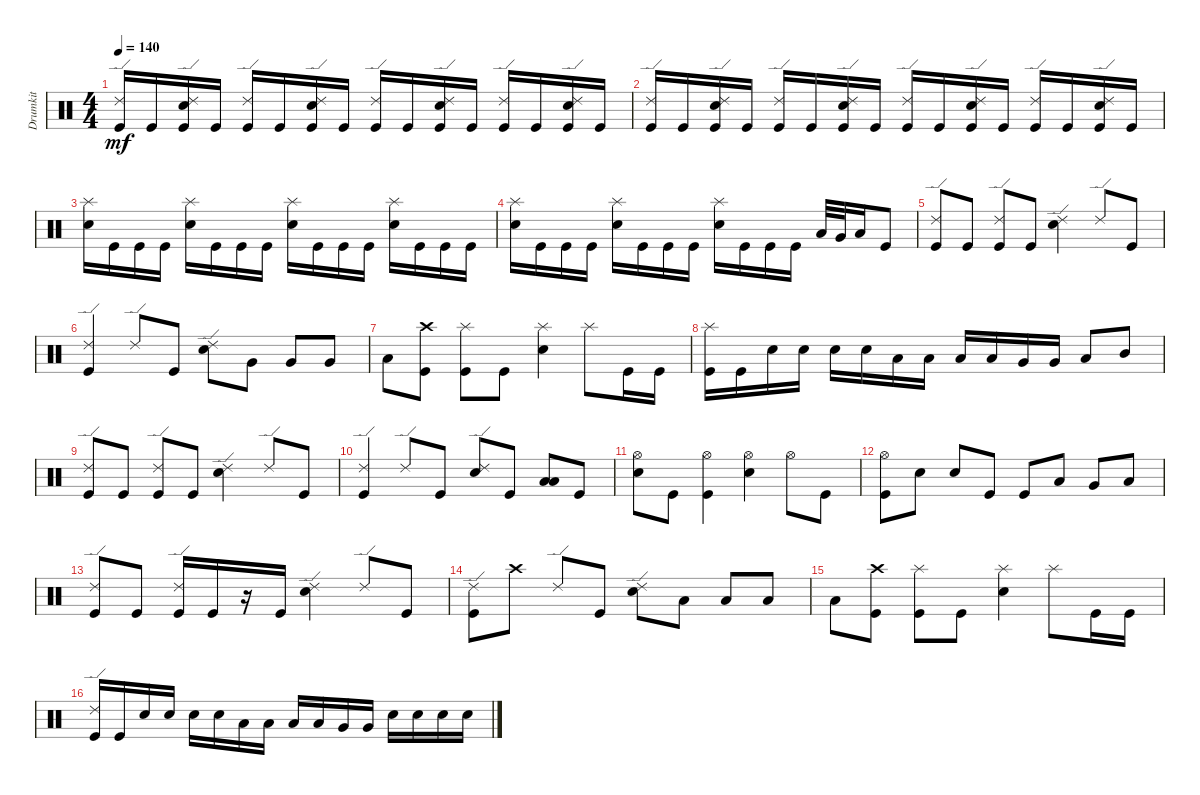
\track ("Drumkit" "Drumkit") {instrument percussion}
\staff {score}
\articulation defaults
\ts (4 4)
\tempo 140
\clef neutral
\ks c
("Kick (hit)" "Ride (edge) 2").16{dy mf} "Kick (hit)".16 ("Ride (edge) 2" "Snare (hit) 2" "Kick (hit)").16 "Kick (hit)".16 ("Kick (hit)" "Ride (edge) 2").16 "Kick (hit)".16 ("Ride (edge) 2" "Snare (hit) 2" "Kick (hit)").16 "Kick (hit)".16 ("Kick (hit)" "Ride (edge) 2").16 "Kick (hit)".16 ("Ride (edge) 2" "Snare (hit) 2" "Kick (hit)").16 "Kick (hit)".16 ("Kick (hit)" "Ride (edge) 2").16 "Kick (hit)".16 ("Ride (edge) 2" "Snare (hit) 2" "Kick (hit)").16 "Kick (hit)".16 |
("Kick (hit)" "Ride (edge) 2").16 "Kick (hit)".16 ("Ride (edge) 2" "Snare (hit) 2" "Kick (hit)").16 "Kick (hit)".16 ("Kick (hit)" "Ride (edge) 2").16 "Kick (hit)".16 ("Ride (edge) 2" "Snare (hit) 2" "Kick (hit)").16 "Kick (hit)".16 ("Kick (hit)" "Ride (edge) 2").16 "Kick (hit)".16 ("Ride (edge) 2" "Snare (hit) 2" "Kick (hit)").16 "Kick (hit)".16 ("Kick (hit)" "Ride (edge) 2").16 "Kick (hit)".16 ("Ride (edge) 2" "Snare (hit) 2" "Kick (hit)").16 "Kick (hit)".16 |
("Snare (hit) 2" "Splash (hit)").16 "Kick (hit)".16 "Kick (hit)".16 "Kick (hit)".16 ("Snare (hit) 2" "Splash (hit)").16 "Kick (hit)".16 "Kick (hit)".16 "Kick (hit)".16 ("Snare (hit) 2" "Splash (hit)").16 "Kick (hit)".16 "Kick (hit)".16 "Kick (hit)".16 ("Snare (hit) 2" "Splash (hit)").16 "Kick (hit)".16 "Kick (hit)".16 "Kick (hit)".16 |
("Snare (hit) 2" "Splash (hit)").16 "Kick (hit)".16 "Kick (hit)".16 "Kick (hit)".16 ("Snare (hit) 2" "Splash (hit)").16 "Kick (hit)".16 "Kick (hit)".16 "Kick (hit)".16 ("Snare (hit) 2" "Splash (hit)").16 "Kick (hit)".16 "Kick (hit)".16 "Kick (hit)".16 "Low Tom (hit)".32 "Very Low Tom (hit)".32 "Low Floor Tom (hit)".16 "Kick (hit)".8 |
("Kick (hit)" "Ride (edge) 2").8 "Kick (hit)".8 ("Kick (hit)" "Ride (edge) 2").8 "Kick (hit)".8 ("Snare (hit) 2" "Ride (edge) 2").4 "Ride (edge) 2".8 "Kick (hit)".8 |
("Kick (hit)" "Ride (edge) 2").4 "Ride (edge) 2".8 "Kick (hit)".8 ("Snare (hit) 2" "Ride (edge) 2").8 "Very Low Tom (hit)".8 "Very Low Tom (hit)".8 "Very Low Tom (hit)".8 |
"Low Floor Tom (hit)".8 ("Kick (hit)" "Crash high (hit)").8 ("Kick (hit)" "Splash (hit)").8 "Kick (hit)".8 ("Snare (hit) 2" "Splash (hit)").4 "Splash (hit)".8 "Kick (hit)".16 "Kick (hit)".16 |
("Kick (hit)" "Splash (hit)").16 "Kick (hit)".16 "Snare (hit) 2".16 "Snare (hit) 2".16 "Snare (hit) 2".16 "Snare (hit) 2".16 "Low Tom (hit)".16 "Low Tom (hit)".16 "Low Tom (hit)".16 "Low Tom (hit)".16 "Very Low Tom (hit)".16 "Very Low Tom (hit)".16 "Low Floor Tom (hit)".8 "Mid Tom (hit)".8 |
("Kick (hit)" "Ride (edge) 2").8 "Kick (hit)".8 ("Kick (hit)" "Ride (edge) 2").8 "Kick (hit)".8 ("Snare (hit) 2" "Ride (edge) 2").4 "Ride (edge) 2".8 "Kick (hit)".8 |
("Kick (hit)" "Ride (edge) 2").4 "Ride (edge) 2".8 "Kick (hit)".8 ("Snare (hit) 2" "Ride (edge) 2").8 "Kick (hit)".8 ("Low Tom (hit)" "Low Floor Tom (hit)").8 "Kick (hit)".8 |
("Snare (hit) 2" "Hi-Hat (open)").8 "Kick (hit)".8 ("Kick (hit)" "Hi-Hat (open)").4 ("Snare (hit) 2" "Hi-Hat (open)").4 "Hi-Hat (open)".8 "Kick (hit)".8 |
("Kick (hit)" "Hi-Hat (open)").8 "Snare (hit) 2".8 "Snare (hit) 2".8 "Kick (hit)".8 "Kick (hit)".8 "Low Tom (hit)".8 "Very Low Tom (hit)".8 "Low Floor Tom (hit)".8 |
("Kick (hit)" "Ride (edge) 2").8 "Kick (hit)".8 ("Kick (hit)" "Ride (edge) 2").16 "Kick (hit)".16 r.16 "Kick (hit)".16 ("Snare (hit) 2" "Ride (edge) 2").4 "Ride (edge) 2".8 "Kick (hit)".8 |
("Kick (hit)" "Ride (edge) 2").8 "Crash high (hit)".8 "Ride (edge) 2".8 "Kick (hit)".8 ("Snare (hit) 2" "Ride (edge) 2").8 "Low Floor Tom (hit)".8 "Low Floor Tom (hit)".8 "Low Floor Tom (hit)".8 |
"Low Floor Tom (hit)".8 ("Kick (hit)" "Crash high (hit)").8 ("Kick (hit)" "Splash (hit)").8 "Kick (hit)".8 ("Snare (hit) 2" "Splash (hit)").4 "Splash (hit)".8 "Kick (hit)".16 "Kick (hit)".16 |
("Kick (hit)" "Ride (edge) 2").16 "Kick (hit)".16 "Snare (hit) 2".16 "Snare (hit) 2".16 "Snare (hit) 2".16 "Snare (hit) 2".16 "Low Tom (hit)".16 "Low Tom (hit)".16 "Low Tom (hit)".16 "Low Tom (hit)".16 "Very Low Tom (hit)".16 "Very Low Tom (hit)".16 "Snare (hit) 2".16 "Snare (hit) 2".16 "Snare (hit) 2".16 "Snare (hit) 2".16
